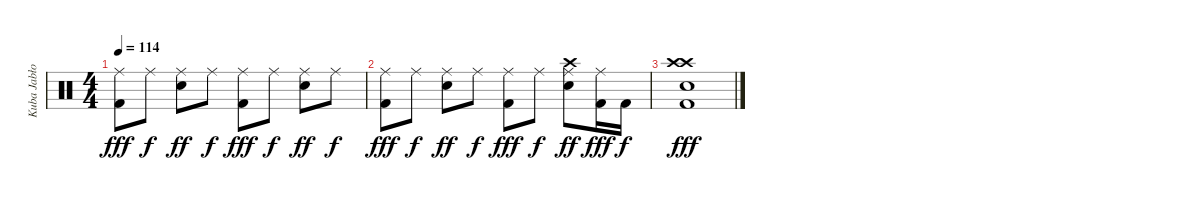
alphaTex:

\track ("Kuba Jabłoński" "Kuba Jabło") {instrument percussion}
\staff {score}
\articulation defaults
\ts (4 4)
\tempo 114
\clef neutral
\ks c
("Kick (hit) 2" "Ride (middle)").8{dy fff} "Ride (middle)".8{dy f} ("Snare (hit) 2" "Ride (middle)").8{dy ff} "Ride (middle)".8{dy f} ("Kick (hit) 2" "Ride (middle)").8{dy fff} "Ride (middle)".8{dy f} ("Snare (hit) 2" "Ride (middle)").8{dy ff} "Ride (middle)".8{dy f} |
("Kick (hit) 2" "Ride (middle)").8{dy fff} "Ride (middle)".8{dy f} ("Snare (hit) 2" "Ride (middle)").8{dy ff} "Ride (middle)".8{dy f} ("Kick (hit) 2" "Ride (middle)").8{dy fff} "Ride (middle)".8{dy f} ("Crash high (hit)" "Snare (hit) 2" "Ride (middle)").8{dy ff} ("Kick (hit) 2" "Ride (middle)").16{dy fff} "Kick (hit) 2".16{dy f} |
("Crash high (hit)" "Kick (hit) 2" "Snare (hit) 2" "Crash high (hit)").1{dy fff}
